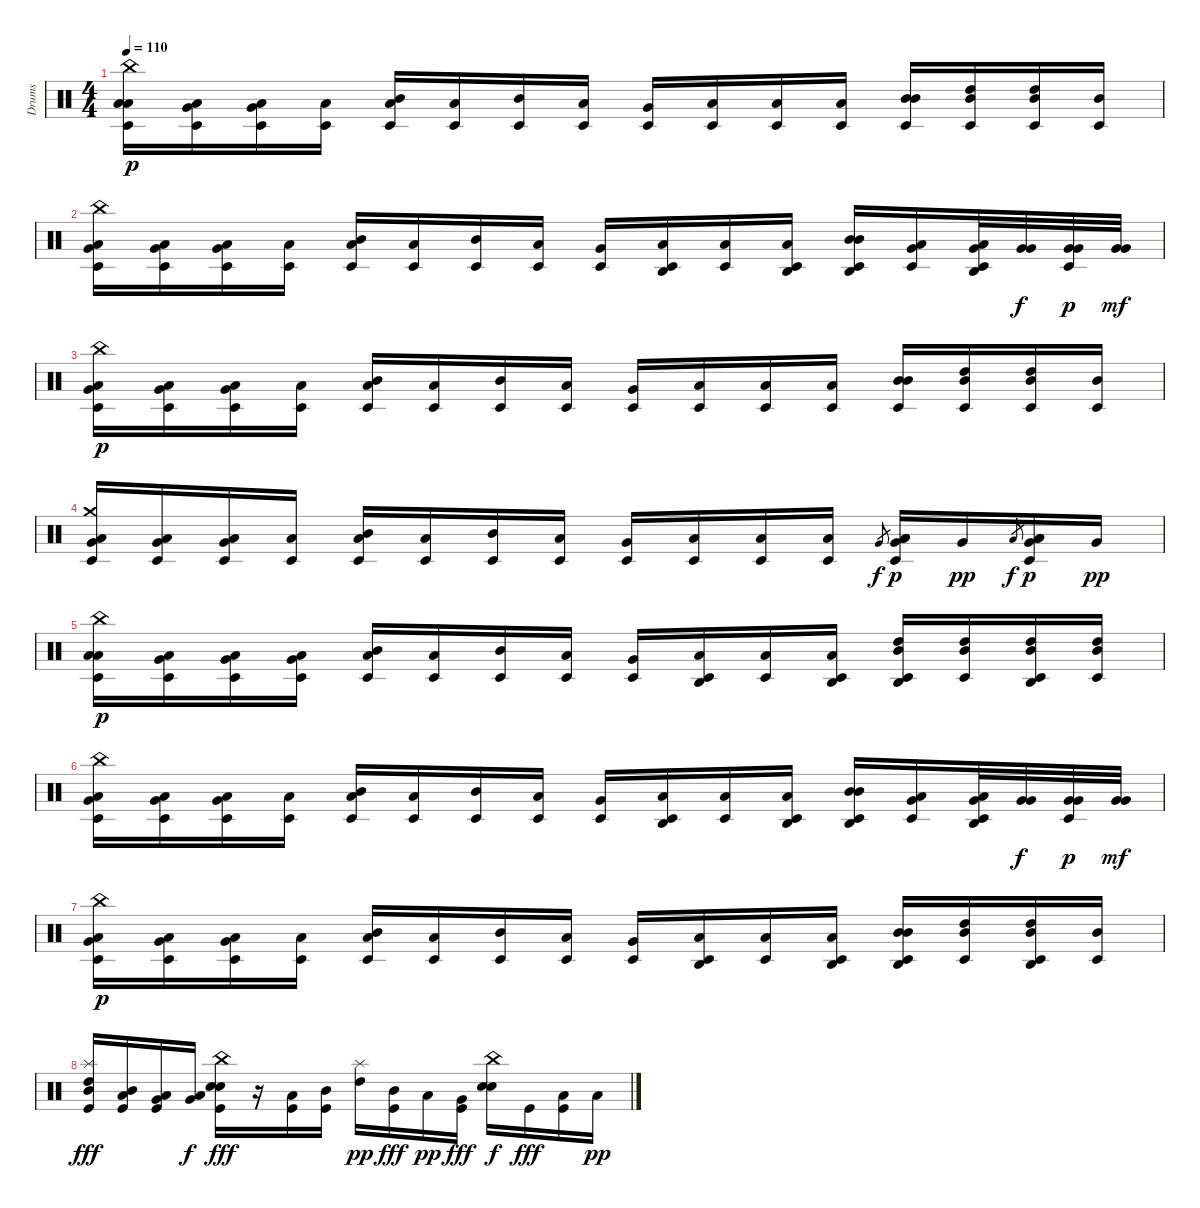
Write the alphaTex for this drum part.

\track ("Drums" "Drums") {instrument percussion}
\staff {score}
\articulation defaults
\ts (4 4)
\tempo 110
\clef neutral
\ks c
("China (hit)" "Low Floor Tom (hit)" "Low Tom (hit)" "Timbale low (hit)").16{dy p} ("Low Floor Tom (hit)" "Very Low Tom (hit)" "Timbale low (hit)").16 ("Low Floor Tom (hit)" "Very Low Tom (hit)" "Timbale low (hit)").16 ("Low Floor Tom (hit)" "Timbale low (hit)").16 ("Low Floor Tom (hit)" "Mid Tom (hit)" "Timbale low (hit)").16 ("Low Floor Tom (hit)" "Timbale low (hit)").16 ("Mid Tom (hit)" "Timbale low (hit)").16 ("Low Tom (hit)" "Timbale low (hit)").16 ("Very Low Tom (hit)" "Timbale low (hit)").16 ("Low Tom (hit)" "Timbale low (hit)").16 ("Low Tom (hit)" "Timbale low (hit)").16 ("Low Tom (hit)" "Timbale low (hit)").16 ("Mid Tom (hit)" "Mid Tom (hit)" "Timbale low (hit)").16 ("High Tom (hit)" "Mid Tom (hit)" "Timbale low (hit)").16 ("High Tom (hit)" "Mid Tom (hit)" "Timbale low (hit)").16 ("Mid Tom (hit)" "Timbale low (hit)").16 |
("China (hit)" "Low Floor Tom (hit)" "Very Low Tom (hit)" "Timbale low (hit)").16 ("Low Floor Tom (hit)" "Very Low Tom (hit)" "Timbale low (hit)").16 ("Low Floor Tom (hit)" "Very Low Tom (hit)" "Timbale low (hit)").16 ("Low Floor Tom (hit)" "Timbale low (hit)").16 ("Low Floor Tom (hit)" "Mid Tom (hit)" "Timbale low (hit)").16 ("Low Floor Tom (hit)" "Timbale low (hit)").16 ("Mid Tom (hit)" "Timbale low (hit)").16 ("Low Tom (hit)" "Timbale low (hit)").16 ("Very Low Tom (hit)" "Timbale low (hit)").16 ("Agogo high (hit)" "Low Tom (hit)" "Timbale low (hit)").16 ("Low Tom (hit)" "Timbale low (hit)").16 ("Agogo high (hit)" "Low Tom (hit)" "Timbale low (hit)").16 ("Agogo high (hit)" "Mid Tom (hit)" "Mid Tom (hit)" "Timbale low (hit)").16 ("Low Floor Tom (hit)" "Very Low Tom (hit)" "Timbale low (hit)").16 ("Agogo high (hit)" "Low Floor Tom (hit)" "Very Low Tom (hit)" "Timbale low (hit)").32 ("Very Low Tom (hit)" "Very Low Tom (hit)").32{dy f} ("Very Low Tom (hit)" "Very Low Tom (hit)" "Timbale low (hit)").32{dy p} ("Very Low Tom (hit)" "Very Low Tom (hit)").32{dy mf} |
("China (hit)" "Low Floor Tom (hit)" "Very Low Tom (hit)" "Timbale low (hit)").16{dy p} ("Low Floor Tom (hit)" "Very Low Tom (hit)" "Timbale low (hit)").16 ("Low Floor Tom (hit)" "Very Low Tom (hit)" "Timbale low (hit)").16 ("Low Floor Tom (hit)" "Timbale low (hit)").16 ("Low Floor Tom (hit)" "Mid Tom (hit)" "Timbale low (hit)").16 ("Low Floor Tom (hit)" "Timbale low (hit)").16 ("Mid Tom (hit)" "Timbale low (hit)").16 ("Low Tom (hit)" "Timbale low (hit)").16 ("Very Low Tom (hit)" "Timbale low (hit)").16 ("Low Tom (hit)" "Timbale low (hit)").16 ("Low Tom (hit)" "Timbale low (hit)").16 ("Low Tom (hit)" "Timbale low (hit)").16 ("Mid Tom (hit)" "Mid Tom (hit)" "Timbale low (hit)").16 ("High Tom (hit)" "Mid Tom (hit)" "Timbale low (hit)").16 ("High Tom (hit)" "Mid Tom (hit)" "Timbale low (hit)").16 ("Mid Tom (hit)" "Timbale low (hit)").16 |
("Crash medium (hit)" "Low Floor Tom (hit)" "Very Low Tom (hit)" "Timbale low (hit)").16 ("Low Floor Tom (hit)" "Very Low Tom (hit)" "Timbale low (hit)").16 ("Low Floor Tom (hit)" "Very Low Tom (hit)" "Timbale low (hit)").16 ("Low Floor Tom (hit)" "Timbale low (hit)").16 ("Low Floor Tom (hit)" "Mid Tom (hit)" "Timbale low (hit)").16 ("Low Floor Tom (hit)" "Timbale low (hit)").16 ("Mid Tom (hit)" "Timbale low (hit)").16 ("Low Tom (hit)" "Timbale low (hit)").16 ("Very Low Tom (hit)" "Timbale low (hit)").16 ("Low Tom (hit)" "Timbale low (hit)").16 ("Low Tom (hit)" "Timbale low (hit)").16 ("Low Tom (hit)" "Timbale low (hit)").16 "Very Low Tom (hit)"{h}.8{gr dy f} ("Low Tom (hit)" "Low Floor Tom (hit)" "Very Low Tom (hit)" "Timbale low (hit)").16{dy p} "Very Low Tom (hit)".16{dy pp} "Low Floor Tom (hit)".8{gr dy f} ("Low Tom (hit)" "Very Low Tom (hit)" "Low Floor Tom (hit)" "Timbale low (hit)").16{dy p} "Very Low Tom (hit)".16{dy pp} |
("China (hit)" "Low Floor Tom (hit)" "Low Tom (hit)" "Timbale low (hit)").16{dy p} ("Low Floor Tom (hit)" "Very Low Tom (hit)" "Timbale low (hit)").16 ("Low Floor Tom (hit)" "Very Low Tom (hit)" "Timbale low (hit)").16 ("Low Floor Tom (hit)" "Very Low Tom (hit)" "Timbale low (hit)").16 ("Low Floor Tom (hit)" "Mid Tom (hit)" "Timbale low (hit)").16 ("Low Floor Tom (hit)" "Timbale low (hit)").16 ("Mid Tom (hit)" "Timbale low (hit)").16 ("Low Tom (hit)" "Timbale low (hit)").16 ("Very Low Tom (hit)" "Timbale low (hit)").16 ("Agogo high (hit)" "Low Tom (hit)" "Timbale low (hit)").16 ("Low Tom (hit)" "Timbale low (hit)").16 ("Agogo high (hit)" "Low Tom (hit)" "Timbale low (hit)").16 ("Agogo high (hit)" "High Tom (hit)" "Mid Tom (hit)" "Timbale low (hit)").16 ("High Tom (hit)" "Mid Tom (hit)" "Timbale low (hit)").16 ("Agogo high (hit)" "High Tom (hit)" "Mid Tom (hit)" "Timbale low (hit)").16 ("High Tom (hit)" "Mid Tom (hit)" "Timbale low (hit)").16 |
("China (hit)" "Low Floor Tom (hit)" "Very Low Tom (hit)" "Timbale low (hit)").16 ("Low Floor Tom (hit)" "Very Low Tom (hit)" "Timbale low (hit)").16 ("Low Floor Tom (hit)" "Very Low Tom (hit)" "Timbale low (hit)").16 ("Low Floor Tom (hit)" "Timbale low (hit)").16 ("Low Floor Tom (hit)" "Mid Tom (hit)" "Timbale low (hit)").16 ("Low Floor Tom (hit)" "Timbale low (hit)").16 ("Mid Tom (hit)" "Timbale low (hit)").16 ("Low Tom (hit)" "Timbale low (hit)").16 ("Very Low Tom (hit)" "Timbale low (hit)").16 ("Agogo high (hit)" "Low Tom (hit)" "Timbale low (hit)").16 ("Low Tom (hit)" "Timbale low (hit)").16 ("Agogo high (hit)" "Low Tom (hit)" "Timbale low (hit)").16 ("Agogo high (hit)" "Mid Tom (hit)" "Mid Tom (hit)" "Timbale low (hit)").16 ("Low Floor Tom (hit)" "Very Low Tom (hit)" "Timbale low (hit)").16 ("Agogo high (hit)" "Low Floor Tom (hit)" "Very Low Tom (hit)" "Timbale low (hit)").32 ("Very Low Tom (hit)" "Very Low Tom (hit)").32{dy f} ("Very Low Tom (hit)" "Very Low Tom (hit)" "Timbale low (hit)").32{dy p} ("Very Low Tom (hit)" "Very Low Tom (hit)").32{dy mf} |
("China (hit)" "Low Floor Tom (hit)" "Very Low Tom (hit)" "Timbale low (hit)").16{dy p} ("Low Floor Tom (hit)" "Very Low Tom (hit)" "Timbale low (hit)").16 ("Low Floor Tom (hit)" "Very Low Tom (hit)" "Timbale low (hit)").16 ("Low Floor Tom (hit)" "Timbale low (hit)").16 ("Low Floor Tom (hit)" "Mid Tom (hit)" "Timbale low (hit)").16 ("Low Floor Tom (hit)" "Timbale low (hit)").16 ("Mid Tom (hit)" "Timbale low (hit)").16 ("Low Tom (hit)" "Timbale low (hit)").16 ("Very Low Tom (hit)" "Timbale low (hit)").16 ("Agogo high (hit)" "Low Tom (hit)" "Timbale low (hit)").16 ("Low Tom (hit)" "Timbale low (hit)").16 ("Agogo high (hit)" "Low Tom (hit)" "Timbale low (hit)").16 ("Agogo high (hit)" "Mid Tom (hit)" "Mid Tom (hit)" "Timbale low (hit)").16 ("High Tom (hit)" "Mid Tom (hit)" "Timbale low (hit)").16 ("Agogo high (hit)" "High Tom (hit)" "Mid Tom (hit)" "Timbale low (hit)").16 ("Mid Tom (hit)" "Timbale low (hit)").16 |
("Splash (hit)" "Mid Tom (hit)" "High Tom (hit)" "Kick (hit)").16{dy fff} ("Low Tom (hit)" "Mid Tom (hit)" "Kick (hit)").16 ("Very Low Tom (hit)" "Low Tom (hit)" "Kick (hit)").16 ("Low Floor Tom (hit)" "Very Low Tom (hit)").16{dy f} ("China (hit)" "Electric Snare (hit)" "Snare (hit) 2" "Kick (hit)").16{dy fff} r.16 ("Low Tom (hit)" "Kick (hit)").16 ("Mid Tom (hit)" "Kick (hit)").16 ("Splash (hit)" "High Tom (hit)").16{dy pp} ("Mid Tom (hit)" "Kick (hit)").16{dy fff} "Low Tom (hit)".16{dy pp} ("Very Low Tom (hit)" "Kick (hit)").16{dy fff} ("China (hit)" "Snare (hit) 2" "Electric Snare (hit)").16{dy f} "Kick (hit)".16{dy fff} ("Low Tom (hit)" "Kick (hit)").16 "Low Tom (hit)".16{dy pp}
